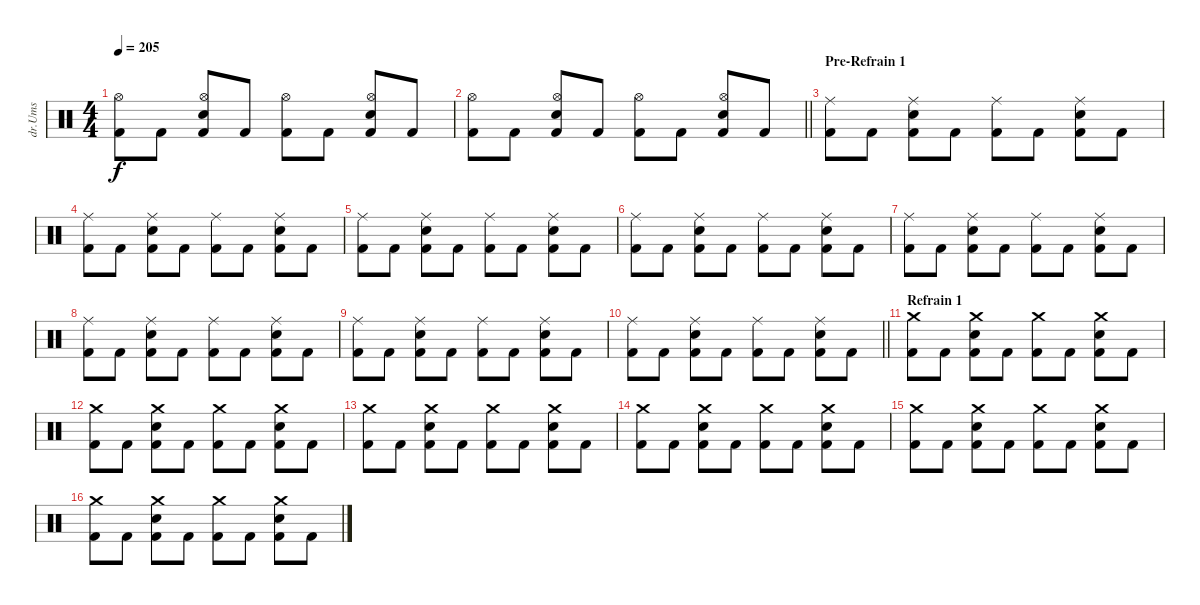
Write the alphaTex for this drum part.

\track ("dr.Ums" "dr.Ums") {instrument percussion}
\staff {score}
\articulation defaults
\ts (4 4)
\tempo 205
\clef neutral
\ks c
("Kick (hit) 2" "Hi-Hat (open)").8{dy f} "Kick (hit) 2".8 ("Kick (hit) 2" "Hi-Hat (open)" "Snare (hit) 2").8 "Kick (hit) 2".8 ("Kick (hit) 2" "Hi-Hat (open)").8 "Kick (hit) 2".8 ("Kick (hit) 2" "Hi-Hat (open)" "Snare (hit) 2").8 "Kick (hit) 2".8 |
\barLineRight lightlight
("Kick (hit) 2" "Hi-Hat (open)").8 "Kick (hit) 2".8 ("Kick (hit) 2" "Hi-Hat (open)" "Snare (hit) 2").8 "Kick (hit) 2".8 ("Kick (hit) 2" "Hi-Hat (open)").8 "Kick (hit) 2".8 ("Kick (hit) 2" "Hi-Hat (open)" "Snare (hit) 2").8 "Kick (hit) 2".8 |
\section ("" "Pre-Refrain 1")
("Ride (middle)" "Kick (hit) 2").8 "Kick (hit) 2".8 ("Ride (middle)" "Snare (hit) 2" "Kick (hit) 2").8 "Kick (hit) 2".8 ("Ride (middle)" "Kick (hit) 2").8 "Kick (hit) 2".8 ("Ride (middle)" "Snare (hit) 2" "Kick (hit) 2").8 "Kick (hit) 2".8 |
("Ride (middle)" "Kick (hit) 2").8 "Kick (hit) 2".8 ("Ride (middle)" "Snare (hit) 2" "Kick (hit) 2").8 "Kick (hit) 2".8 ("Ride (middle)" "Kick (hit) 2").8 "Kick (hit) 2".8 ("Ride (middle)" "Snare (hit) 2" "Kick (hit) 2").8 "Kick (hit) 2".8 |
("Ride (middle)" "Kick (hit) 2").8 "Kick (hit) 2".8 ("Ride (middle)" "Snare (hit) 2" "Kick (hit) 2").8 "Kick (hit) 2".8 ("Ride (middle)" "Kick (hit) 2").8 "Kick (hit) 2".8 ("Ride (middle)" "Snare (hit) 2" "Kick (hit) 2").8 "Kick (hit) 2".8 |
("Ride (middle)" "Kick (hit) 2").8 "Kick (hit) 2".8 ("Ride (middle)" "Snare (hit) 2" "Kick (hit) 2").8 "Kick (hit) 2".8 ("Ride (middle)" "Kick (hit) 2").8 "Kick (hit) 2".8 ("Ride (middle)" "Snare (hit) 2" "Kick (hit) 2").8 "Kick (hit) 2".8 |
("Ride (middle)" "Kick (hit) 2").8 "Kick (hit) 2".8 ("Ride (middle)" "Snare (hit) 2" "Kick (hit) 2").8 "Kick (hit) 2".8 ("Ride (middle)" "Kick (hit) 2").8 "Kick (hit) 2".8 ("Ride (middle)" "Snare (hit) 2" "Kick (hit) 2").8 "Kick (hit) 2".8 |
("Ride (middle)" "Kick (hit) 2").8 "Kick (hit) 2".8 ("Ride (middle)" "Snare (hit) 2" "Kick (hit) 2").8 "Kick (hit) 2".8 ("Ride (middle)" "Kick (hit) 2").8 "Kick (hit) 2".8 ("Ride (middle)" "Snare (hit) 2" "Kick (hit) 2").8 "Kick (hit) 2".8 |
("Ride (middle)" "Kick (hit) 2").8 "Kick (hit) 2".8 ("Ride (middle)" "Snare (hit) 2" "Kick (hit) 2").8 "Kick (hit) 2".8 ("Ride (middle)" "Kick (hit) 2").8 "Kick (hit) 2".8 ("Ride (middle)" "Snare (hit) 2" "Kick (hit) 2").8 "Kick (hit) 2".8 |
\barLineRight lightlight
("Ride (middle)" "Kick (hit) 2").8 "Kick (hit) 2".8 ("Ride (middle)" "Snare (hit) 2" "Kick (hit) 2").8 "Kick (hit) 2".8 ("Ride (middle)" "Kick (hit) 2").8 "Kick (hit) 2".8 ("Ride (middle)" "Snare (hit) 2" "Kick (hit) 2").8 "Kick (hit) 2".8 |
\section ("" "Refrain 1")
("Kick (hit) 2" "Crash medium (hit)").8 "Kick (hit) 2".8 ("Kick (hit) 2" "Crash medium (hit)" "Snare (hit) 2").8 "Kick (hit) 2".8 ("Kick (hit) 2" "Crash medium (hit)").8 "Kick (hit) 2".8 ("Kick (hit) 2" "Crash medium (hit)" "Snare (hit) 2").8 "Kick (hit) 2".8 |
("Kick (hit) 2" "Crash medium (hit)").8 "Kick (hit) 2".8 ("Kick (hit) 2" "Crash medium (hit)" "Snare (hit) 2").8 "Kick (hit) 2".8 ("Kick (hit) 2" "Crash medium (hit)").8 "Kick (hit) 2".8 ("Kick (hit) 2" "Crash medium (hit)" "Snare (hit) 2").8 "Kick (hit) 2".8 |
("Kick (hit) 2" "Crash medium (hit)").8 "Kick (hit) 2".8 ("Kick (hit) 2" "Crash medium (hit)" "Snare (hit) 2").8 "Kick (hit) 2".8 ("Kick (hit) 2" "Crash medium (hit)").8 "Kick (hit) 2".8 ("Kick (hit) 2" "Crash medium (hit)" "Snare (hit) 2").8 "Kick (hit) 2".8 |
("Kick (hit) 2" "Crash medium (hit)").8 "Kick (hit) 2".8 ("Kick (hit) 2" "Crash medium (hit)" "Snare (hit) 2").8 "Kick (hit) 2".8 ("Kick (hit) 2" "Crash medium (hit)").8 "Kick (hit) 2".8 ("Kick (hit) 2" "Crash medium (hit)" "Snare (hit) 2").8 "Kick (hit) 2".8 |
("Kick (hit) 2" "Crash medium (hit)").8 "Kick (hit) 2".8 ("Kick (hit) 2" "Crash medium (hit)" "Snare (hit) 2").8 "Kick (hit) 2".8 ("Kick (hit) 2" "Crash medium (hit)").8 "Kick (hit) 2".8 ("Kick (hit) 2" "Crash medium (hit)" "Snare (hit) 2").8 "Kick (hit) 2".8 |
("Kick (hit) 2" "Crash medium (hit)").8 "Kick (hit) 2".8 ("Kick (hit) 2" "Crash medium (hit)" "Snare (hit) 2").8 "Kick (hit) 2".8 ("Kick (hit) 2" "Crash medium (hit)").8 "Kick (hit) 2".8 ("Kick (hit) 2" "Crash medium (hit)" "Snare (hit) 2").8 "Kick (hit) 2".8
